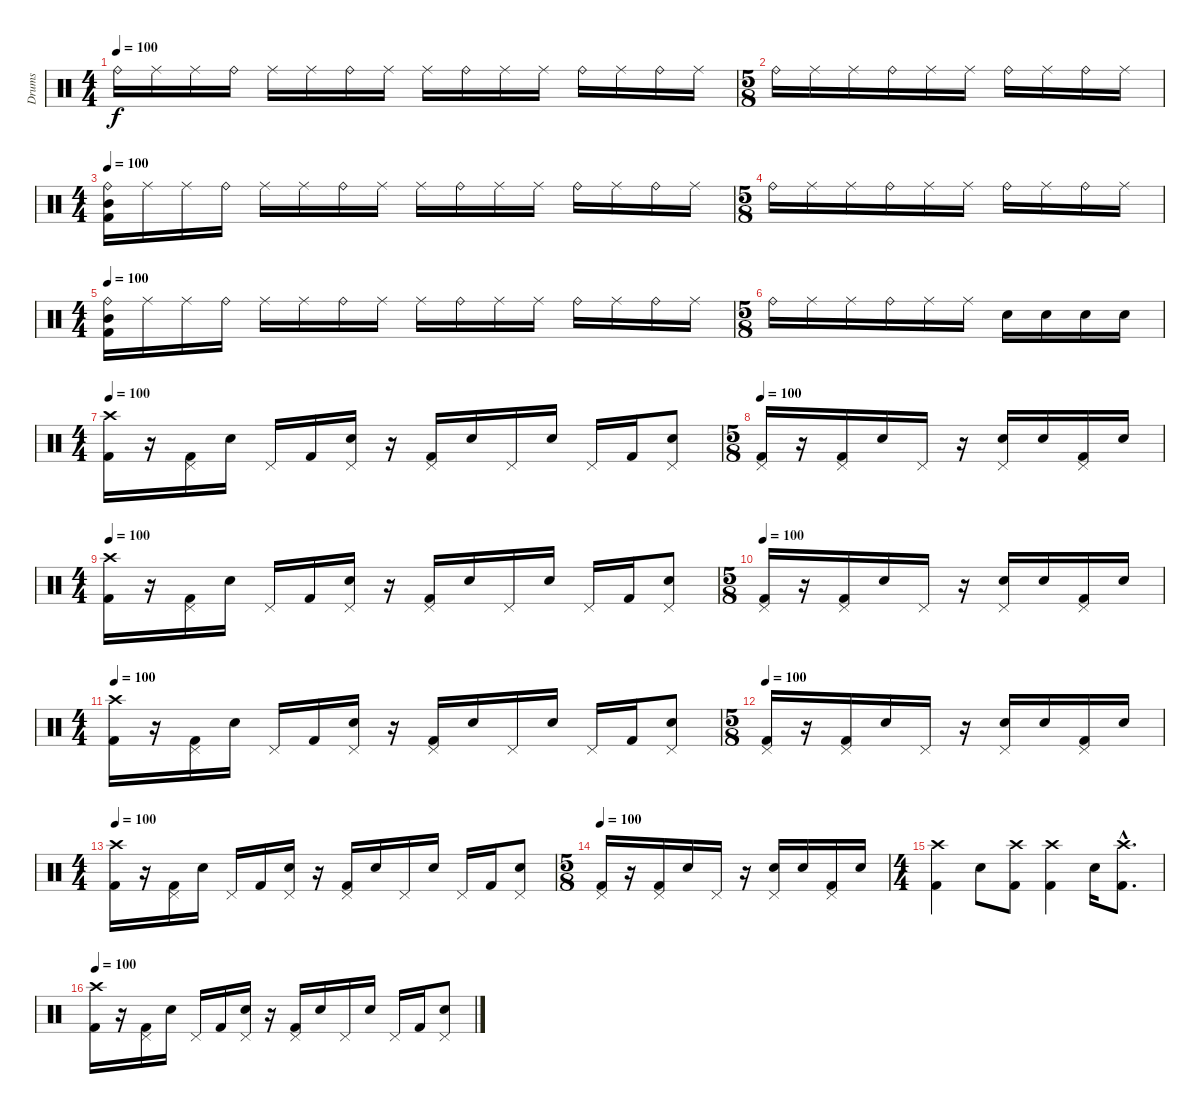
\track ("Drums" "Drums") {instrument percussion}
\staff {score}
\articulation defaults
\ts (4 4)
\tempo 100
\clef neutral
\ks c "Ride (bell)".16{dy f} "Ride (middle)".16 "Ride (middle)".16 "Ride (bell)".16 "Ride (middle)".16 "Ride (middle)".16 "Ride (bell)".16 "Ride (middle)".16 "Ride (middle)".16 "Ride (bell)".16 "Ride (middle)".16 "Ride (middle)".16 "Ride (bell)".16 "Ride (middle)".16 "Ride (bell)".16 "Ride (middle)".16
|
\ts (5 8)
"Ride (bell)".16 "Ride (middle)".16 "Ride (middle)".16 "Ride (bell)".16 "Ride (middle)".16 "Ride (middle)".16 "Ride (bell)".16 "Ride (middle)".16 "Ride (bell)".16 "Ride (middle)".16 |
\ts (4 4)
\tempo 100
("Ride (bell)" "Mid Tom (hit)" "Kick (hit) 2").16 "Ride (middle)".16 "Ride (middle)".16 "Ride (bell)".16 "Ride (middle)".16 "Ride (middle)".16 "Ride (bell)".16 "Ride (middle)".16 "Ride (middle)".16 "Ride (bell)".16 "Ride (middle)".16 "Ride (middle)".16 "Ride (bell)".16 "Ride (middle)".16 "Ride (bell)".16 "Ride (middle)".16 |
\ts (5 8)
"Ride (bell)".16 "Ride (middle)".16 "Ride (middle)".16 "Ride (bell)".16 "Ride (middle)".16 "Ride (middle)".16 "Ride (bell)".16 "Ride (middle)".16 "Ride (bell)".16 "Ride (middle)".16 |
\ts (4 4)
\tempo 100
("Ride (bell)" "Mid Tom (hit)" "Kick (hit) 2").16 "Ride (middle)".16 "Ride (middle)".16 "Ride (bell)".16 "Ride (middle)".16 "Ride (middle)".16 "Ride (bell)".16 "Ride (middle)".16 "Ride (middle)".16 "Ride (bell)".16 "Ride (middle)".16 "Ride (middle)".16 "Ride (bell)".16 "Ride (middle)".16 "Ride (bell)".16 "Ride (middle)".16 |
\ts (5 8)
"Ride (bell)".16 "Ride (middle)".16 "Ride (middle)".16 "Ride (bell)".16 "Ride (middle)".16 "Ride (middle)".16 "Electric Snare (hit)".16 "Electric Snare (hit)".16 "Electric Snare (hit)".16 "Electric Snare (hit)".16 |
\ts (4 4)
\tempo 100
("Kick (hit) 2" "Crash high (hit)").16 r.16 ("Pedal Hi-Hat (hit)" "Kick (hit) 2").16 "Electric Snare (hit)".16 "Pedal Hi-Hat (hit)".16 "Kick (hit) 2".16 ("Pedal Hi-Hat (hit)" "Electric Snare (hit)").16 r.16 ("Pedal Hi-Hat (hit)" "Kick (hit) 2").16 "Electric Snare (hit)".16 "Pedal Hi-Hat (hit)".16 "Electric Snare (hit)".16 "Pedal Hi-Hat (hit)".16 "Kick (hit) 2".16 ("Pedal Hi-Hat (hit)" "Electric Snare (hit)").8 |
\ts (5 8)
\tempo 100
("Pedal Hi-Hat (hit)" "Kick (hit) 2").16 r.16 ("Pedal Hi-Hat (hit)" "Kick (hit) 2").16 "Electric Snare (hit)".16 "Pedal Hi-Hat (hit)".16 r.16 ("Pedal Hi-Hat (hit)" "Electric Snare (hit)").16 "Electric Snare (hit)".16 ("Pedal Hi-Hat (hit)" "Kick (hit) 2").16 "Electric Snare (hit)".16 |
\ts (4 4)
\tempo 100
("Kick (hit) 2" "Crash high (hit)").16 r.16 ("Pedal Hi-Hat (hit)" "Kick (hit) 2").16 "Electric Snare (hit)".16 "Pedal Hi-Hat (hit)".16 "Kick (hit) 2".16 ("Pedal Hi-Hat (hit)" "Electric Snare (hit)").16 r.16 ("Pedal Hi-Hat (hit)" "Kick (hit) 2").16 "Electric Snare (hit)".16 "Pedal Hi-Hat (hit)".16 "Electric Snare (hit)".16 "Pedal Hi-Hat (hit)".16 "Kick (hit) 2".16 ("Pedal Hi-Hat (hit)" "Electric Snare (hit)").8 |
\ts (5 8)
\tempo 100
("Pedal Hi-Hat (hit)" "Kick (hit) 2").16 r.16 ("Pedal Hi-Hat (hit)" "Kick (hit) 2").16 "Electric Snare (hit)".16 "Pedal Hi-Hat (hit)".16 r.16 ("Pedal Hi-Hat (hit)" "Electric Snare (hit)").16 "Electric Snare (hit)".16 ("Pedal Hi-Hat (hit)" "Kick (hit) 2").16 "Electric Snare (hit)".16 |
\ts (4 4)
\tempo 100
("Kick (hit) 2" "Crash high (hit)").16 r.16 ("Pedal Hi-Hat (hit)" "Kick (hit) 2").16 "Electric Snare (hit)".16 "Pedal Hi-Hat (hit)".16 "Kick (hit) 2".16 ("Pedal Hi-Hat (hit)" "Electric Snare (hit)").16 r.16 ("Pedal Hi-Hat (hit)" "Kick (hit) 2").16 "Electric Snare (hit)".16 "Pedal Hi-Hat (hit)".16 "Electric Snare (hit)".16 "Pedal Hi-Hat (hit)".16 "Kick (hit) 2".16 ("Pedal Hi-Hat (hit)" "Electric Snare (hit)").8 |
\ts (5 8)
\tempo 100
("Pedal Hi-Hat (hit)" "Kick (hit) 2").16 r.16 ("Pedal Hi-Hat (hit)" "Kick (hit) 2").16 "Electric Snare (hit)".16 "Pedal Hi-Hat (hit)".16 r.16 ("Pedal Hi-Hat (hit)" "Electric Snare (hit)").16 "Electric Snare (hit)".16 ("Pedal Hi-Hat (hit)" "Kick (hit) 2").16 "Electric Snare (hit)".16 |
\ts (4 4)
\tempo 100
("Kick (hit) 2" "Crash high (hit)").16 r.16 ("Pedal Hi-Hat (hit)" "Kick (hit) 2").16 "Electric Snare (hit)".16 "Pedal Hi-Hat (hit)".16 "Kick (hit) 2".16 ("Pedal Hi-Hat (hit)" "Electric Snare (hit)").16 r.16 ("Pedal Hi-Hat (hit)" "Kick (hit) 2").16 "Electric Snare (hit)".16 "Pedal Hi-Hat (hit)".16 "Electric Snare (hit)".16 "Pedal Hi-Hat (hit)".16 "Kick (hit) 2".16 ("Pedal Hi-Hat (hit)" "Electric Snare (hit)").8 |
\ts (5 8)
\tempo 100
("Pedal Hi-Hat (hit)" "Kick (hit) 2").16 r.16 ("Pedal Hi-Hat (hit)" "Kick (hit) 2").16 "Electric Snare (hit)".16 "Pedal Hi-Hat (hit)".16 r.16 ("Pedal Hi-Hat (hit)" "Electric Snare (hit)").16 "Electric Snare (hit)".16 ("Pedal Hi-Hat (hit)" "Kick (hit) 2").16 "Electric Snare (hit)".16 |
\ts (4 4)
("Crash high (hit)" "Kick (hit) 2").4 "Electric Snare (hit)".8 ("Crash high (hit)" "Kick (hit) 2").8 ("Crash high (hit)" "Kick (hit) 2").4 "Electric Snare (hit)".16 ("Crash high (hit)"{hac} "Kick (hit) 2"{hac}).8{d} |
\tempo 100
("Kick (hit) 2" "Crash high (hit)").16 r.16 ("Pedal Hi-Hat (hit)" "Kick (hit) 2").16 "Electric Snare (hit)".16 "Pedal Hi-Hat (hit)".16 "Kick (hit) 2".16 ("Pedal Hi-Hat (hit)" "Electric Snare (hit)").16 r.16 ("Pedal Hi-Hat (hit)" "Kick (hit) 2").16 "Electric Snare (hit)".16 "Pedal Hi-Hat (hit)".16 "Electric Snare (hit)".16 "Pedal Hi-Hat (hit)".16 "Kick (hit) 2".16 ("Pedal Hi-Hat (hit)" "Electric Snare (hit)").8
